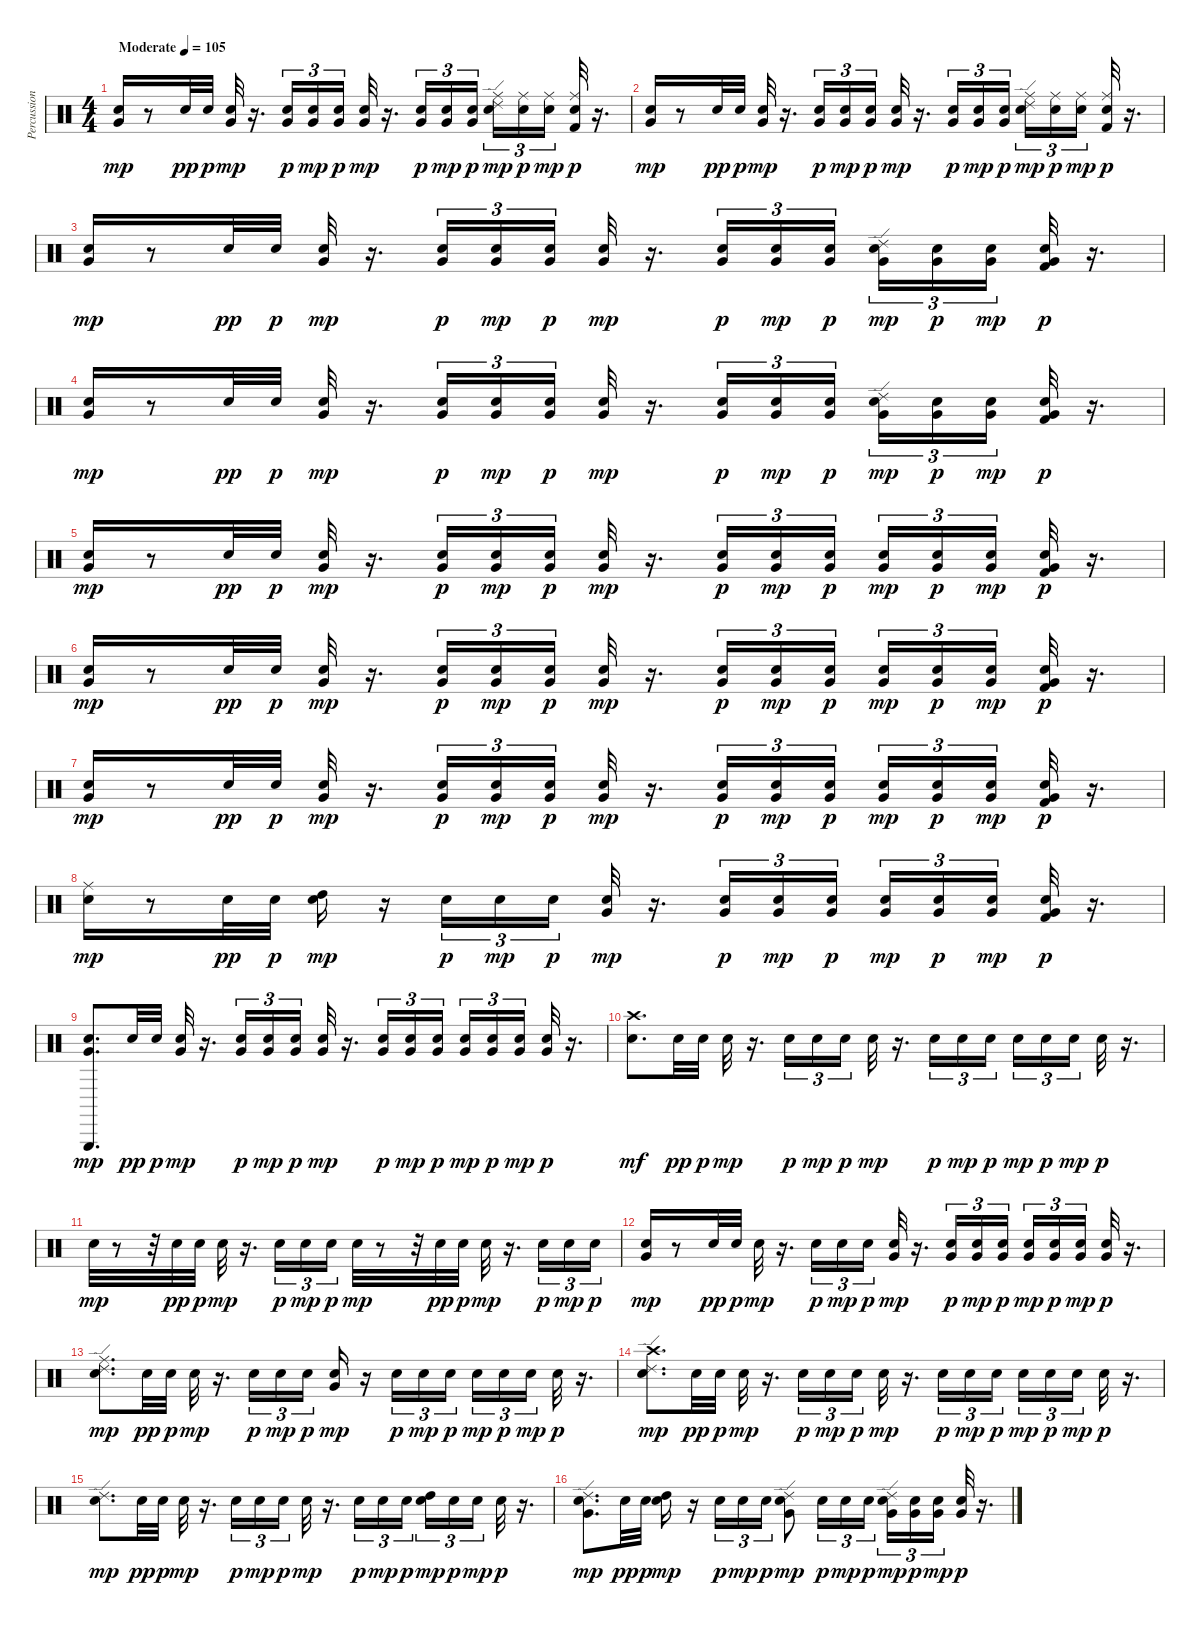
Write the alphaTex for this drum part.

\track ("Percussion" "Percussion") {instrument percussion}
\staff {score}
\articulation defaults
\ts (4 4)
\tempo (105 "Moderate")
\clef neutral
\ks c
("Very Low Tom (hit)" "Snare (hit) 2").16{dy mp} r.8 "Snare (hit) 2".32{dy pp} "Snare (hit) 2".32{dy p} ("Very Low Tom (hit)" "Snare (hit) 2").32{dy mp} r.16{d} ("Very Low Tom (hit)" "Snare (hit) 2").16{tu (3 2) dy p} ("Very Low Tom (hit)" "Snare (hit) 2").16{tu (3 2) dy mp} ("Very Low Tom (hit)" "Snare (hit) 2").16{tu (3 2) dy p} ("Very Low Tom (hit)" "Snare (hit) 2").32{dy mp} r.16{d} ("Very Low Tom (hit)" "Snare (hit) 2").16{tu (3 2) dy p} ("Very Low Tom (hit)" "Snare (hit) 2").16{tu (3 2) dy mp} ("Very Low Tom (hit)" "Snare (hit) 2").16{tu (3 2) dy p} ("Ride (middle)" "Ride (edge) 2" "Snare (hit) 2").16{tu (3 2) dy mp} ("Ride (middle)" "Snare (hit) 2").16{tu (3 2) dy p} ("Ride (middle)" "Snare (hit) 2").16{tu (3 2) dy mp beam splitsecondary} ("Ride (middle)" "Kick (hit) 2" "Snare (hit) 2").32{dy p} r.16{d} |
("Very Low Tom (hit)" "Snare (hit) 2").16{dy mp} r.8 "Snare (hit) 2".32{dy pp} "Snare (hit) 2".32{dy p} ("Very Low Tom (hit)" "Snare (hit) 2").32{dy mp} r.16{d} ("Very Low Tom (hit)" "Snare (hit) 2").16{tu (3 2) dy p} ("Very Low Tom (hit)" "Snare (hit) 2").16{tu (3 2) dy mp} ("Very Low Tom (hit)" "Snare (hit) 2").16{tu (3 2) dy p} ("Very Low Tom (hit)" "Snare (hit) 2").32{dy mp} r.16{d} ("Very Low Tom (hit)" "Snare (hit) 2").16{tu (3 2) dy p} ("Very Low Tom (hit)" "Snare (hit) 2").16{tu (3 2) dy mp} ("Very Low Tom (hit)" "Snare (hit) 2").16{tu (3 2) dy p} ("Ride (middle)" "Ride (edge) 2" "Snare (hit) 2").16{tu (3 2) dy mp} ("Ride (middle)" "Snare (hit) 2").16{tu (3 2) dy p} ("Ride (middle)" "Snare (hit) 2").16{tu (3 2) dy mp beam splitsecondary} ("Ride (middle)" "Snare (hit) 2" "Kick (hit) 2").32{dy p} r.16{d} |
("Very Low Tom (hit)" "Snare (hit) 2").16{dy mp} r.8 "Snare (hit) 2".32{dy pp} "Snare (hit) 2".32{dy p} ("Very Low Tom (hit)" "Snare (hit) 2").32{dy mp} r.16{d} ("Very Low Tom (hit)" "Snare (hit) 2").16{tu (3 2) dy p} ("Very Low Tom (hit)" "Snare (hit) 2").16{tu (3 2) dy mp} ("Very Low Tom (hit)" "Snare (hit) 2").16{tu (3 2) dy p} ("Very Low Tom (hit)" "Snare (hit) 2").32{dy mp} r.16{d} ("Very Low Tom (hit)" "Snare (hit) 2").16{tu (3 2) dy p} ("Very Low Tom (hit)" "Snare (hit) 2").16{tu (3 2) dy mp} ("Very Low Tom (hit)" "Snare (hit) 2").16{tu (3 2) dy p} ("Very Low Tom (hit)" "Ride (edge) 2" "Snare (hit) 2").16{tu (3 2) dy mp} ("Very Low Tom (hit)" "Snare (hit) 2").16{tu (3 2) dy p} ("Very Low Tom (hit)" "Snare (hit) 2").16{tu (3 2) dy mp beam splitsecondary} ("Very Low Tom (hit)" "Snare (hit) 2" "Kick (hit) 2").32{dy p} r.16{d} |
("Very Low Tom (hit)" "Snare (hit) 2").16{dy mp} r.8 "Snare (hit) 2".32{dy pp} "Snare (hit) 2".32{dy p} ("Very Low Tom (hit)" "Snare (hit) 2").32{dy mp} r.16{d} ("Very Low Tom (hit)" "Snare (hit) 2").16{tu (3 2) dy p} ("Very Low Tom (hit)" "Snare (hit) 2").16{tu (3 2) dy mp} ("Very Low Tom (hit)" "Snare (hit) 2").16{tu (3 2) dy p} ("Very Low Tom (hit)" "Snare (hit) 2").32{dy mp} r.16{d} ("Very Low Tom (hit)" "Snare (hit) 2").16{tu (3 2) dy p} ("Very Low Tom (hit)" "Snare (hit) 2").16{tu (3 2) dy mp} ("Very Low Tom (hit)" "Snare (hit) 2").16{tu (3 2) dy p} ("Very Low Tom (hit)" "Ride (edge) 2" "Snare (hit) 2").16{tu (3 2) dy mp} ("Very Low Tom (hit)" "Snare (hit) 2").16{tu (3 2) dy p} ("Very Low Tom (hit)" "Snare (hit) 2").16{tu (3 2) dy mp beam splitsecondary} ("Very Low Tom (hit)" "Snare (hit) 2" "Kick (hit) 2").32{dy p} r.16{d} |
("Very Low Tom (hit)" "Snare (hit) 2").16{dy mp} r.8 "Snare (hit) 2".32{dy pp} "Snare (hit) 2".32{dy p} ("Very Low Tom (hit)" "Snare (hit) 2").32{dy mp} r.16{d} ("Very Low Tom (hit)" "Snare (hit) 2").16{tu (3 2) dy p} ("Very Low Tom (hit)" "Snare (hit) 2").16{tu (3 2) dy mp} ("Very Low Tom (hit)" "Snare (hit) 2").16{tu (3 2) dy p} ("Very Low Tom (hit)" "Snare (hit) 2").32{dy mp} r.16{d} ("Very Low Tom (hit)" "Snare (hit) 2").16{tu (3 2) dy p} ("Very Low Tom (hit)" "Snare (hit) 2").16{tu (3 2) dy mp} ("Very Low Tom (hit)" "Snare (hit) 2").16{tu (3 2) dy p} ("Very Low Tom (hit)" "Snare (hit) 2").16{tu (3 2) dy mp} ("Very Low Tom (hit)" "Snare (hit) 2").16{tu (3 2) dy p} ("Very Low Tom (hit)" "Snare (hit) 2").16{tu (3 2) dy mp beam splitsecondary} ("Very Low Tom (hit)" "Kick (hit) 2" "Snare (hit) 2").32{dy p} r.16{d} |
("Very Low Tom (hit)" "Snare (hit) 2").16{dy mp} r.8 "Snare (hit) 2".32{dy pp} "Snare (hit) 2".32{dy p} ("Very Low Tom (hit)" "Snare (hit) 2").32{dy mp} r.16{d} ("Very Low Tom (hit)" "Snare (hit) 2").16{tu (3 2) dy p} ("Very Low Tom (hit)" "Snare (hit) 2").16{tu (3 2) dy mp} ("Very Low Tom (hit)" "Snare (hit) 2").16{tu (3 2) dy p} ("Very Low Tom (hit)" "Snare (hit) 2").32{dy mp} r.16{d} ("Very Low Tom (hit)" "Snare (hit) 2").16{tu (3 2) dy p} ("Very Low Tom (hit)" "Snare (hit) 2").16{tu (3 2) dy mp} ("Very Low Tom (hit)" "Snare (hit) 2").16{tu (3 2) dy p} ("Very Low Tom (hit)" "Snare (hit) 2").16{tu (3 2) dy mp} ("Very Low Tom (hit)" "Snare (hit) 2").16{tu (3 2) dy p} ("Very Low Tom (hit)" "Snare (hit) 2").16{tu (3 2) dy mp beam splitsecondary} ("Very Low Tom (hit)" "Kick (hit) 2" "Snare (hit) 2").32{dy p} r.16{d} |
("Very Low Tom (hit)" "Snare (hit) 2").16{dy mp} r.8 "Snare (hit) 2".32{dy pp} "Snare (hit) 2".32{dy p} ("Very Low Tom (hit)" "Snare (hit) 2").32{dy mp} r.16{d} ("Very Low Tom (hit)" "Snare (hit) 2").16{tu (3 2) dy p} ("Very Low Tom (hit)" "Snare (hit) 2").16{tu (3 2) dy mp} ("Very Low Tom (hit)" "Snare (hit) 2").16{tu (3 2) dy p} ("Very Low Tom (hit)" "Snare (hit) 2").32{dy mp} r.16{d} ("Very Low Tom (hit)" "Snare (hit) 2").16{tu (3 2) dy p} ("Very Low Tom (hit)" "Snare (hit) 2").16{tu (3 2) dy mp} ("Very Low Tom (hit)" "Snare (hit) 2").16{tu (3 2) dy p} ("Very Low Tom (hit)" "Snare (hit) 2").16{tu (3 2) dy mp} ("Very Low Tom (hit)" "Snare (hit) 2").16{tu (3 2) dy p} ("Very Low Tom (hit)" "Snare (hit) 2").16{tu (3 2) dy mp beam splitsecondary} ("Very Low Tom (hit)" "Kick (hit) 2" "Snare (hit) 2").32{dy p} r.16{d} |
("Ride (middle)" "Snare (hit) 2").16{dy mp} r.8 "Snare (hit) 2".32{dy pp} "Snare (hit) 2".32{dy p} ("High Tom (hit)" "Snare (hit) 2").16{dy mp} r.16 "Snare (hit) 2".16{tu (3 2) dy p} "Snare (hit) 2".16{tu (3 2) dy mp} "Snare (hit) 2".16{tu (3 2) dy p} ("Very Low Tom (hit)" "Snare (hit) 2").32{dy mp} r.16{d} ("Very Low Tom (hit)" "Snare (hit) 2").16{tu (3 2) dy p} ("Very Low Tom (hit)" "Snare (hit) 2").16{tu (3 2) dy mp} ("Very Low Tom (hit)" "Snare (hit) 2").16{tu (3 2) dy p} ("Very Low Tom (hit)" "Snare (hit) 2").16{tu (3 2) dy mp} ("Very Low Tom (hit)" "Snare (hit) 2").16{tu (3 2) dy p} ("Very Low Tom (hit)" "Snare (hit) 2").16{tu (3 2) dy mp beam splitsecondary} ("Very Low Tom (hit)" "Snare (hit) 2" "Kick (hit) 2").32{dy p} r.16{d} |
("Triangle (hit)" "Very Low Tom (hit)" "Snare (hit) 2").8{d dy mp} "Snare (hit) 2".32{dy pp} "Snare (hit) 2".32{dy p} ("Very Low Tom (hit)" "Snare (hit) 2").32{dy mp} r.16{d} ("Very Low Tom (hit)" "Snare (hit) 2").16{tu (3 2) dy p} ("Very Low Tom (hit)" "Snare (hit) 2").16{tu (3 2) dy mp} ("Very Low Tom (hit)" "Snare (hit) 2").16{tu (3 2) dy p} ("Very Low Tom (hit)" "Snare (hit) 2").32{dy mp} r.16{d} ("Very Low Tom (hit)" "Snare (hit) 2").16{tu (3 2) dy p} ("Very Low Tom (hit)" "Snare (hit) 2").16{tu (3 2) dy mp} ("Very Low Tom (hit)" "Snare (hit) 2").16{tu (3 2) dy p} ("Very Low Tom (hit)" "Snare (hit) 2").16{tu (3 2) dy mp} ("Very Low Tom (hit)" "Snare (hit) 2").16{tu (3 2) dy p} ("Very Low Tom (hit)" "Snare (hit) 2").16{tu (3 2) dy mp beam splitsecondary} ("Very Low Tom (hit)" "Snare (hit) 2").32{dy p} r.16{d} |
("Snare (hit) 2" "Crash high (hit)").8{d dy mf} "Snare (hit) 2".32{dy pp} "Snare (hit) 2".32{dy p} "Snare (hit) 2".32{dy mp} r.16{d} "Snare (hit) 2".16{tu (3 2) dy p} "Snare (hit) 2".16{tu (3 2) dy mp} "Snare (hit) 2".16{tu (3 2) dy p} "Snare (hit) 2".32{dy mp} r.16{d} "Snare (hit) 2".16{tu (3 2) dy p} "Snare (hit) 2".16{tu (3 2) dy mp} "Snare (hit) 2".16{tu (3 2) dy p} "Snare (hit) 2".16{tu (3 2) dy mp} "Snare (hit) 2".16{tu (3 2) dy p} "Snare (hit) 2".16{tu (3 2) dy mp beam splitsecondary} "Snare (hit) 2".32{dy p} r.16{d} |
"Snare (hit) 2".32{dy mp} r.8 r.32 "Snare (hit) 2".32{dy pp} "Snare (hit) 2".32{dy p} "Snare (hit) 2".32{dy mp} r.16{d} "Snare (hit) 2".16{tu (3 2) dy p} "Snare (hit) 2".16{tu (3 2) dy mp} "Snare (hit) 2".16{tu (3 2) dy p} "Snare (hit) 2".32{dy mp} r.8 r.32 "Snare (hit) 2".32{dy pp} "Snare (hit) 2".32{dy p} "Snare (hit) 2".32{dy mp} r.16{d} "Snare (hit) 2".16{tu (3 2) dy p} "Snare (hit) 2".16{tu (3 2) dy mp} "Snare (hit) 2".16{tu (3 2) dy p} |
("Very Low Tom (hit)" "Snare (hit) 2").16{dy mp} r.8 "Snare (hit) 2".32{dy pp} "Snare (hit) 2".32{dy p} "Snare (hit) 2".32{dy mp} r.16{d} "Snare (hit) 2".16{tu (3 2) dy p} "Snare (hit) 2".16{tu (3 2) dy mp} "Snare (hit) 2".16{tu (3 2) dy p} ("Very Low Tom (hit)" "Snare (hit) 2").32{dy mp} r.16{d} ("Very Low Tom (hit)" "Snare (hit) 2").16{tu (3 2) dy p} ("Very Low Tom (hit)" "Snare (hit) 2").16{tu (3 2) dy mp} ("Very Low Tom (hit)" "Snare (hit) 2").16{tu (3 2) dy p} ("Very Low Tom (hit)" "Snare (hit) 2").16{tu (3 2) dy mp} ("Very Low Tom (hit)" "Snare (hit) 2").16{tu (3 2) dy p} ("Very Low Tom (hit)" "Snare (hit) 2").16{tu (3 2) dy mp beam splitsecondary} ("Very Low Tom (hit)" "Snare (hit) 2").32{dy p} r.16{d} |
("Ride (edge) 2" "Ride (middle)" "Snare (hit) 2").8{d dy mp} "Snare (hit) 2".32{dy pp} "Snare (hit) 2".32{dy p} "Snare (hit) 2".32{dy mp} r.16{d} "Snare (hit) 2".16{tu (3 2) dy p} "Snare (hit) 2".16{tu (3 2) dy mp} "Snare (hit) 2".16{tu (3 2) dy p} ("Very Low Tom (hit)" "Snare (hit) 2").16{dy mp} r.16 "Snare (hit) 2".16{tu (3 2) dy p} "Snare (hit) 2".16{tu (3 2) dy mp} "Snare (hit) 2".16{tu (3 2) dy p} "Snare (hit) 2".16{tu (3 2) dy mp} "Snare (hit) 2".16{tu (3 2) dy p} "Snare (hit) 2".16{tu (3 2) dy mp beam splitsecondary} "Snare (hit) 2".32{dy p} r.16{d} |
("Ride (edge) 2" "Crash high (hit)" "Snare (hit) 2").8{d dy mp} "Snare (hit) 2".32{dy pp} "Snare (hit) 2".32{dy p} "Snare (hit) 2".32{dy mp} r.16{d} "Snare (hit) 2".16{tu (3 2) dy p} "Snare (hit) 2".16{tu (3 2) dy mp} "Snare (hit) 2".16{tu (3 2) dy p} "Snare (hit) 2".32{dy mp} r.16{d} "Snare (hit) 2".16{tu (3 2) dy p} "Snare (hit) 2".16{tu (3 2) dy mp} "Snare (hit) 2".16{tu (3 2) dy p} "Snare (hit) 2".16{tu (3 2) dy mp} "Snare (hit) 2".16{tu (3 2) dy p} "Snare (hit) 2".16{tu (3 2) dy mp beam splitsecondary} "Snare (hit) 2".32{dy p} r.16{d} |
("Ride (edge) 2" "Snare (hit) 2").8{d dy mp} "Snare (hit) 2".32{dy pp} "Snare (hit) 2".32{dy p} "Snare (hit) 2".32{dy mp} r.16{d} "Snare (hit) 2".16{tu (3 2) dy p} "Snare (hit) 2".16{tu (3 2) dy mp} "Snare (hit) 2".16{tu (3 2) dy p} "Snare (hit) 2".32{dy mp} r.16{d} "Snare (hit) 2".16{tu (3 2) dy p} "Snare (hit) 2".16{tu (3 2) dy mp} "Snare (hit) 2".16{tu (3 2) dy p} ("High Tom (hit)" "Snare (hit) 2").16{tu (3 2) dy mp} "Snare (hit) 2".16{tu (3 2) dy p} "Snare (hit) 2".16{tu (3 2) dy mp beam splitsecondary} "Snare (hit) 2".32{dy p} r.16{d} |
("Ride (edge) 2" "Very Low Tom (hit)" "Snare (hit) 2").8{d dy mp} "Snare (hit) 2".32{dy pp} "Snare (hit) 2".32{dy p} ("High Tom (hit)" "Snare (hit) 2").16{dy mp} r.16 "Snare (hit) 2".16{tu (3 2) dy p} "Snare (hit) 2".16{tu (3 2) dy mp} "Snare (hit) 2".16{tu (3 2) dy p} ("Ride (edge) 2" "Very Low Tom (hit)" "Snare (hit) 2").8{dy mp} "Snare (hit) 2".16{tu (3 2) dy p} "Snare (hit) 2".16{tu (3 2) dy mp} "Snare (hit) 2".16{tu (3 2) dy p} ("Ride (edge) 2" "Very Low Tom (hit)" "Snare (hit) 2").16{tu (3 2) dy mp} ("Very Low Tom (hit)" "Snare (hit) 2").16{tu (3 2) dy p} ("Very Low Tom (hit)" "Snare (hit) 2").16{tu (3 2) dy mp beam splitsecondary} ("Very Low Tom (hit)" "Snare (hit) 2").32{dy p} r.16{d}
